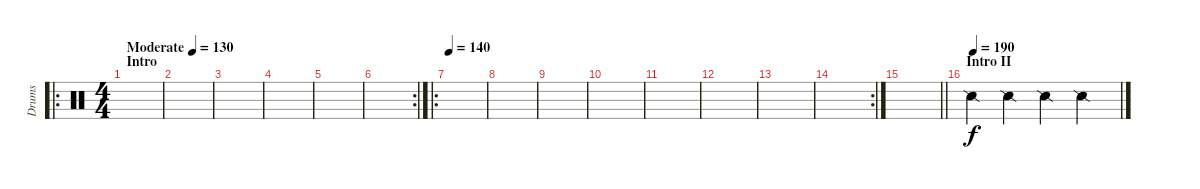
\track ("Drums" "Drums") {instrument percussion}
\staff {score}
\articulation defaults
\ro
\ts (4 4)
\section ("" "Intro")
\tempo (130 "Moderate")
\clef neutral
\ks c
|
|
|
|
|
\rc 2
|
\ro
\tempo 140
|
|
|
|
|
|
|
\rc 2
|
\barLineRight lightlight
|
\section ("" "Intro II")
\tempo (190)
"Snare (side stick) 2".4 "Snare (side stick) 2".4 "Snare (side stick) 2".4 "Snare (side stick) 2".4
